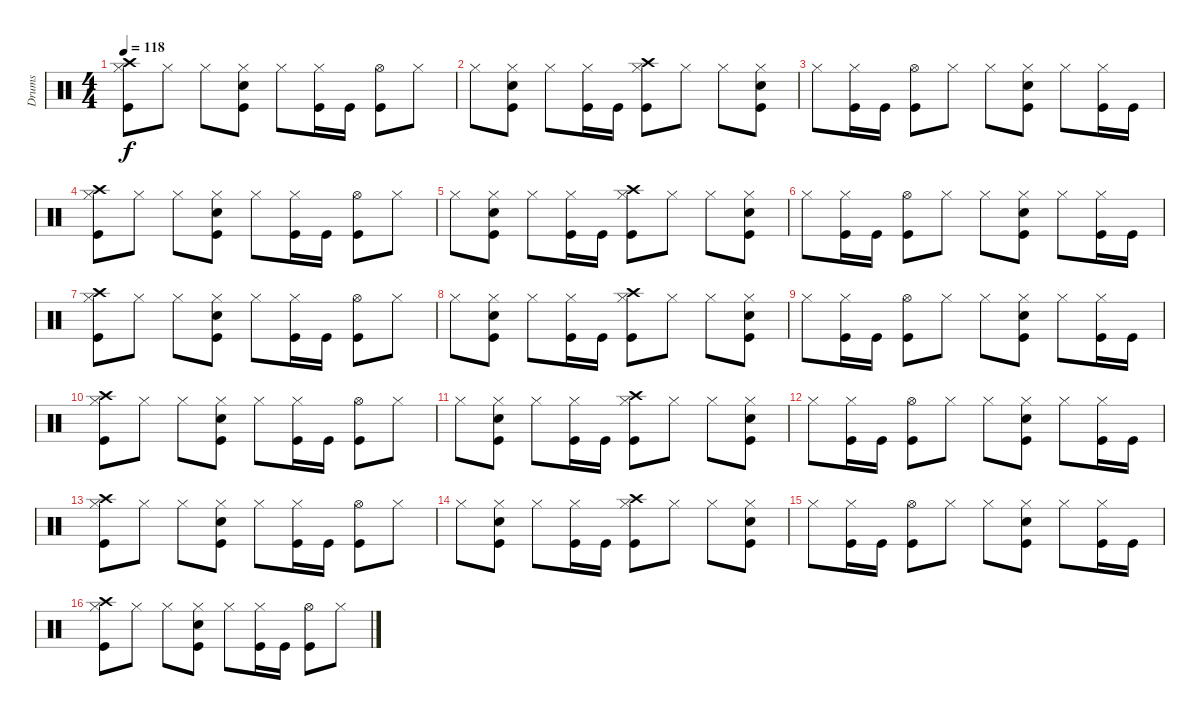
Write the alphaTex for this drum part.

\track ("Drums" "Drums") {instrument percussion}
\staff {score}
\articulation defaults
\ts (4 4)
\tempo 118
\clef neutral
\ks c
("Kick (hit)" "Hi-Hat (closed)" "Crash high (hit)").8{dy f} "Hi-Hat (closed)".8 "Hi-Hat (closed)".8 ("Kick (hit)" "Snare (hit) 2" "Hi-Hat (closed)").8 "Hi-Hat (closed)".8 ("Kick (hit)" "Hi-Hat (closed)").16 "Kick (hit)".16 ("Kick (hit)" "Hi-Hat (open)").8 "Hi-Hat (closed)".8 |
"Hi-Hat (closed)".8 ("Kick (hit)" "Snare (hit) 2" "Hi-Hat (closed)").8 "Hi-Hat (closed)".8 ("Kick (hit)" "Hi-Hat (closed)").16 "Kick (hit)".16 ("Kick (hit)" "Hi-Hat (closed)" "Crash high (hit)").8 "Hi-Hat (closed)".8 "Hi-Hat (closed)".8 ("Kick (hit)" "Snare (hit) 2" "Hi-Hat (closed)").8 |
"Hi-Hat (closed)".8 ("Kick (hit)" "Hi-Hat (closed)").16 "Kick (hit)".16 ("Kick (hit)" "Hi-Hat (open)").8 "Hi-Hat (closed)".8 "Hi-Hat (closed)".8 ("Kick (hit)" "Snare (hit) 2" "Hi-Hat (closed)").8 "Hi-Hat (closed)".8 ("Kick (hit)" "Hi-Hat (closed)").16 "Kick (hit)".16 |
("Kick (hit)" "Hi-Hat (closed)" "Crash high (hit)").8 "Hi-Hat (closed)".8 "Hi-Hat (closed)".8 ("Kick (hit)" "Snare (hit) 2" "Hi-Hat (closed)").8 "Hi-Hat (closed)".8 ("Kick (hit)" "Hi-Hat (closed)").16 "Kick (hit)".16 ("Kick (hit)" "Hi-Hat (open)").8 "Hi-Hat (closed)".8 |
"Hi-Hat (closed)".8 ("Kick (hit)" "Snare (hit) 2" "Hi-Hat (closed)").8 "Hi-Hat (closed)".8 ("Kick (hit)" "Hi-Hat (closed)").16 "Kick (hit)".16 ("Kick (hit)" "Hi-Hat (closed)" "Crash high (hit)").8 "Hi-Hat (closed)".8 "Hi-Hat (closed)".8 ("Kick (hit)" "Snare (hit) 2" "Hi-Hat (closed)").8 |
"Hi-Hat (closed)".8 ("Kick (hit)" "Hi-Hat (closed)").16 "Kick (hit)".16 ("Kick (hit)" "Hi-Hat (open)").8 "Hi-Hat (closed)".8 "Hi-Hat (closed)".8 ("Kick (hit)" "Snare (hit) 2" "Hi-Hat (closed)").8 "Hi-Hat (closed)".8 ("Kick (hit)" "Hi-Hat (closed)").16 "Kick (hit)".16 |
("Kick (hit)" "Hi-Hat (closed)" "Crash high (hit)").8 "Hi-Hat (closed)".8 "Hi-Hat (closed)".8 ("Kick (hit)" "Snare (hit) 2" "Hi-Hat (closed)").8 "Hi-Hat (closed)".8 ("Kick (hit)" "Hi-Hat (closed)").16 "Kick (hit)".16 ("Kick (hit)" "Hi-Hat (open)").8 "Hi-Hat (closed)".8 |
"Hi-Hat (closed)".8 ("Kick (hit)" "Snare (hit) 2" "Hi-Hat (closed)").8 "Hi-Hat (closed)".8 ("Kick (hit)" "Hi-Hat (closed)").16 "Kick (hit)".16 ("Kick (hit)" "Hi-Hat (closed)" "Crash high (hit)").8 "Hi-Hat (closed)".8 "Hi-Hat (closed)".8 ("Kick (hit)" "Snare (hit) 2" "Hi-Hat (closed)").8 |
"Hi-Hat (closed)".8 ("Kick (hit)" "Hi-Hat (closed)").16 "Kick (hit)".16 ("Kick (hit)" "Hi-Hat (open)").8 "Hi-Hat (closed)".8 "Hi-Hat (closed)".8 ("Kick (hit)" "Snare (hit) 2" "Hi-Hat (closed)").8 "Hi-Hat (closed)".8 ("Kick (hit)" "Hi-Hat (closed)").16 "Kick (hit)".16 |
("Kick (hit)" "Hi-Hat (closed)" "Crash high (hit)").8 "Hi-Hat (closed)".8 "Hi-Hat (closed)".8 ("Kick (hit)" "Snare (hit) 2" "Hi-Hat (closed)").8 "Hi-Hat (closed)".8 ("Kick (hit)" "Hi-Hat (closed)").16 "Kick (hit)".16 ("Kick (hit)" "Hi-Hat (open)").8 "Hi-Hat (closed)".8 |
"Hi-Hat (closed)".8 ("Kick (hit)" "Snare (hit) 2" "Hi-Hat (closed)").8 "Hi-Hat (closed)".8 ("Kick (hit)" "Hi-Hat (closed)").16 "Kick (hit)".16 ("Kick (hit)" "Hi-Hat (closed)" "Crash high (hit)").8 "Hi-Hat (closed)".8 "Hi-Hat (closed)".8 ("Kick (hit)" "Snare (hit) 2" "Hi-Hat (closed)").8 |
"Hi-Hat (closed)".8 ("Kick (hit)" "Hi-Hat (closed)").16 "Kick (hit)".16 ("Kick (hit)" "Hi-Hat (open)").8 "Hi-Hat (closed)".8 "Hi-Hat (closed)".8 ("Kick (hit)" "Snare (hit) 2" "Hi-Hat (closed)").8 "Hi-Hat (closed)".8 ("Kick (hit)" "Hi-Hat (closed)").16 "Kick (hit)".16 |
("Kick (hit)" "Hi-Hat (closed)" "Crash high (hit)").8 "Hi-Hat (closed)".8 "Hi-Hat (closed)".8 ("Kick (hit)" "Snare (hit) 2" "Hi-Hat (closed)").8 "Hi-Hat (closed)".8 ("Kick (hit)" "Hi-Hat (closed)").16 "Kick (hit)".16 ("Kick (hit)" "Hi-Hat (open)").8 "Hi-Hat (closed)".8 |
"Hi-Hat (closed)".8 ("Kick (hit)" "Snare (hit) 2" "Hi-Hat (closed)").8 "Hi-Hat (closed)".8 ("Kick (hit)" "Hi-Hat (closed)").16 "Kick (hit)".16 ("Kick (hit)" "Hi-Hat (closed)" "Crash high (hit)").8 "Hi-Hat (closed)".8 "Hi-Hat (closed)".8 ("Kick (hit)" "Snare (hit) 2" "Hi-Hat (closed)").8 |
"Hi-Hat (closed)".8 ("Kick (hit)" "Hi-Hat (closed)").16 "Kick (hit)".16 ("Kick (hit)" "Hi-Hat (open)").8 "Hi-Hat (closed)".8 "Hi-Hat (closed)".8 ("Kick (hit)" "Snare (hit) 2" "Hi-Hat (closed)").8 "Hi-Hat (closed)".8 ("Kick (hit)" "Hi-Hat (closed)").16 "Kick (hit)".16 |
("Kick (hit)" "Hi-Hat (closed)" "Crash high (hit)").8 "Hi-Hat (closed)".8 "Hi-Hat (closed)".8 ("Kick (hit)" "Snare (hit) 2" "Hi-Hat (closed)").8 "Hi-Hat (closed)".8 ("Kick (hit)" "Hi-Hat (closed)").16 "Kick (hit)".16 ("Kick (hit)" "Hi-Hat (open)").8 "Hi-Hat (closed)".8
